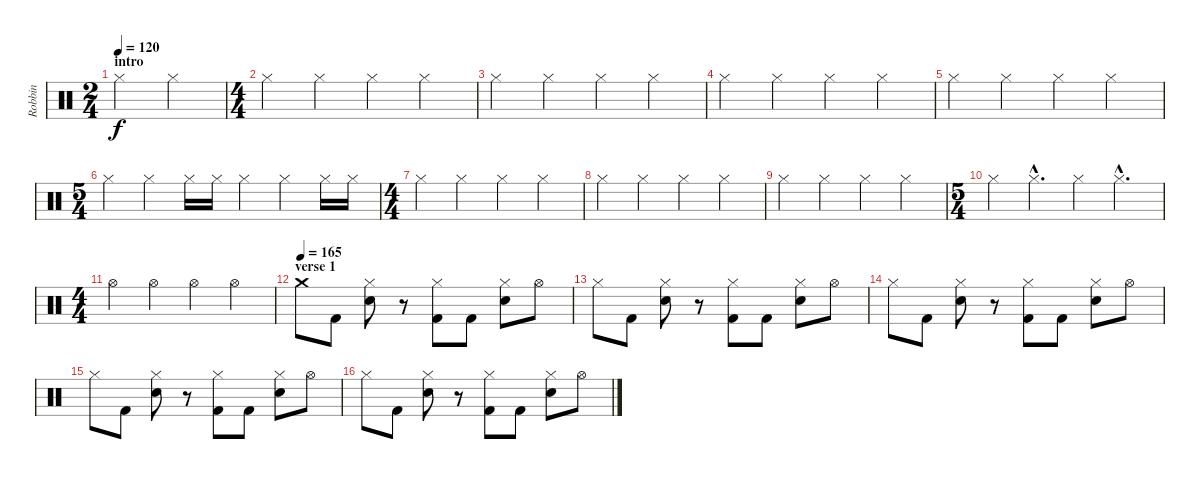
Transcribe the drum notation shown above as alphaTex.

\track ("Robbin" "Robbin") {instrument percussion}
\staff {score}
\articulation defaults
\ts (2 4)
\section ("" "intro")
\tempo 120
\clef neutral
\ks c "Hi-Hat (closed)".4{dy f} "Hi-Hat (closed)".4
|
\ts (4 4)
"Hi-Hat (closed)".4 "Hi-Hat (closed)".4 "Hi-Hat (closed)".4 "Hi-Hat (closed)".4 |
"Hi-Hat (closed)".4 "Hi-Hat (closed)".4 "Hi-Hat (closed)".4 "Hi-Hat (closed)".4 |
"Hi-Hat (closed)".4 "Hi-Hat (closed)".4 "Hi-Hat (closed)".4 "Hi-Hat (closed)".4 |
"Hi-Hat (closed)".4 "Hi-Hat (closed)".4 "Hi-Hat (closed)".4 "Hi-Hat (closed)".4 |
\ts (5 4)
"Hi-Hat (closed)".4 "Hi-Hat (closed)".4 "Hi-Hat (closed)".16 "Hi-Hat (closed)".16 "Hi-Hat (closed)".4 "Hi-Hat (closed)".4 "Hi-Hat (closed)".16 "Hi-Hat (closed)".16 |
\ts (4 4)
"Hi-Hat (closed)".4 "Hi-Hat (closed)".4 "Hi-Hat (closed)".4 "Hi-Hat (closed)".4 |
"Hi-Hat (closed)".4 "Hi-Hat (closed)".4 "Hi-Hat (closed)".4 "Hi-Hat (closed)".4 |
"Hi-Hat (closed)".4 "Hi-Hat (closed)".4 "Hi-Hat (closed)".4 "Hi-Hat (closed)".4 |
\ts (5 4)
"Hi-Hat (closed)".4 "Hi-Hat (closed)"{hac}.4{d} "Hi-Hat (closed)".4 "Hi-Hat (closed)"{hac}.4{d} |
\ts (4 4)
"Hi-Hat (open)".4 "Hi-Hat (open)".4 "Hi-Hat (open)".4 "Hi-Hat (open)".4 |
\section ("" "verse 1")
\tempo (165)
"Crash medium (hit)".8 "Kick (hit) 2".8 ("Hi-Hat (closed)" "Snare (hit) 2").8 r.8 ("Hi-Hat (closed)" "Kick (hit) 2").8 "Kick (hit) 2".8 ("Hi-Hat (closed)" "Snare (hit) 2").8 "Hi-Hat (open)".8 |
"Hi-Hat (closed)".8 "Kick (hit) 2".8 ("Hi-Hat (closed)" "Snare (hit) 2").8 r.8 ("Hi-Hat (closed)" "Kick (hit) 2").8 "Kick (hit) 2".8 ("Hi-Hat (closed)" "Snare (hit) 2").8 "Hi-Hat (open)".8 |
"Hi-Hat (closed)".8 "Kick (hit) 2".8 ("Hi-Hat (closed)" "Snare (hit) 2").8 r.8 ("Hi-Hat (closed)" "Kick (hit) 2").8 "Kick (hit) 2".8 ("Hi-Hat (closed)" "Snare (hit) 2").8 "Hi-Hat (open)".8 |
"Hi-Hat (closed)".8 "Kick (hit) 2".8 ("Hi-Hat (closed)" "Snare (hit) 2").8 r.8 ("Hi-Hat (closed)" "Kick (hit) 2").8 "Kick (hit) 2".8 ("Hi-Hat (closed)" "Snare (hit) 2").8 "Hi-Hat (open)".8 |
"Hi-Hat (closed)".8 "Kick (hit) 2".8 ("Hi-Hat (closed)" "Snare (hit) 2").8 r.8 ("Hi-Hat (closed)" "Kick (hit) 2").8 "Kick (hit) 2".8 ("Hi-Hat (closed)" "Snare (hit) 2").8 "Hi-Hat (open)".8
